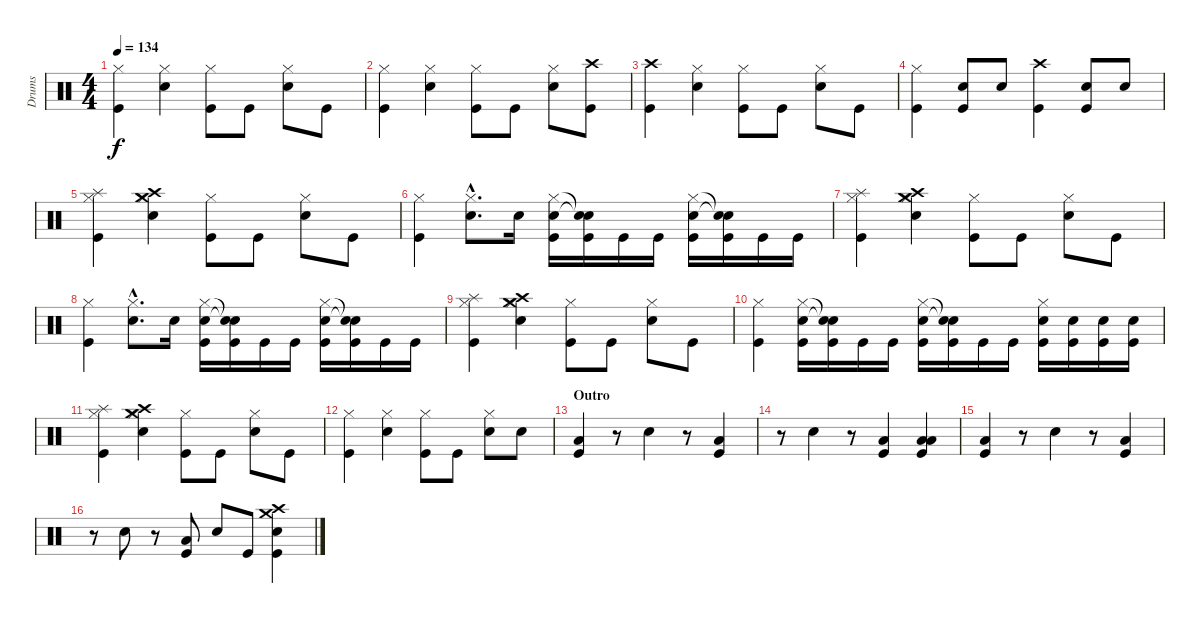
\track ("Drums" "Drums") {instrument percussion}
\staff {score}
\articulation defaults
\ts (4 4)
\tempo 134
\clef neutral
\ks c
("Hi-Hat (closed)" "Kick (hit)").4{dy f} ("Electric Snare (hit)" "Hi-Hat (closed)").4 ("Hi-Hat (closed)" "Kick (hit)").8 "Kick (hit)".8 ("Electric Snare (hit)" "Hi-Hat (closed)").8 "Kick (hit)".8 |
("Hi-Hat (closed)" "Kick (hit)").4 ("Electric Snare (hit)" "Hi-Hat (closed)").4 ("Hi-Hat (closed)" "Kick (hit)").8 "Kick (hit)".8 ("Electric Snare (hit)" "Hi-Hat (closed)").8 ("Crash high (hit)" "Kick (hit)").8 |
("Crash high (hit)" "Kick (hit)").4 ("Electric Snare (hit)" "Hi-Hat (closed)").4 ("Hi-Hat (closed)" "Kick (hit)").8 "Kick (hit)".8 ("Electric Snare (hit)" "Hi-Hat (closed)").8 "Kick (hit)".8 |
("Hi-Hat (closed)" "Kick (hit)").4 ("Electric Snare (hit)" "Kick (hit)").8 "Electric Snare (hit)".8 ("Crash high (hit)" "Kick (hit)").4 ("Electric Snare (hit)" "Kick (hit)").8 "Electric Snare (hit)".8 |
("Splash (hit)" "Hi-Hat (closed)" "Kick (hit)").4 ("Electric Snare (hit)" "Crash medium (hit)" "Crash high (hit)" "Hi-Hat (closed)").4 ("Hi-Hat (closed)" "Kick (hit)").8 "Kick (hit)".8 ("Electric Snare (hit)" "Hi-Hat (closed)").8 "Kick (hit)".8 |
("Hi-Hat (closed)" "Kick (hit)").4 ("Electric Snare (hit)"{hac} "Hi-Hat (closed)"{hac}).8{d} "Electric Snare (hit)".16 ("Electric Snare (hit)" "Hi-Hat (closed)" "Kick (hit)").16 ("Snare (hit)"{t} "Snare (hit)"{t} "Kick (hit)").16 "Kick (hit)".16 "Kick (hit)".16 ("Electric Snare (hit)" "Hi-Hat (closed)" "Kick (hit)").16 ("Snare (hit)"{t} "Snare (hit)"{t} "Kick (hit)").16 "Kick (hit)".16 "Kick (hit)".16 |
("Splash (hit)" "Hi-Hat (closed)" "Kick (hit)").4 ("Electric Snare (hit)" "Crash medium (hit)" "Crash high (hit)" "Hi-Hat (closed)").4 ("Hi-Hat (closed)" "Kick (hit)").8 "Kick (hit)".8 ("Electric Snare (hit)" "Hi-Hat (closed)").8 "Kick (hit)".8 |
("Hi-Hat (closed)" "Kick (hit)").4 ("Electric Snare (hit)"{hac} "Hi-Hat (closed)"{hac}).8{d} "Electric Snare (hit)".16 ("Electric Snare (hit)" "Hi-Hat (closed)" "Kick (hit)").16 ("Snare (hit)"{t} "Snare (hit)"{t} "Kick (hit)").16 "Kick (hit)".16 "Kick (hit)".16 ("Electric Snare (hit)" "Hi-Hat (closed)" "Kick (hit)").16 ("Snare (hit)"{t} "Snare (hit)"{t} "Kick (hit)").16 "Kick (hit)".16 "Kick (hit)".16 |
("Splash (hit)" "Hi-Hat (closed)" "Kick (hit)").4 ("Electric Snare (hit)" "Crash medium (hit)" "Crash high (hit)" "Hi-Hat (closed)").4 ("Hi-Hat (closed)" "Kick (hit)").8 "Kick (hit)".8 ("Electric Snare (hit)" "Hi-Hat (closed)").8 "Kick (hit)".8 |
("Hi-Hat (closed)" "Kick (hit)").4 ("Electric Snare (hit)" "Hi-Hat (closed)" "Kick (hit)").16 ("Snare (hit)"{t} "Snare (hit)"{t} "Kick (hit)").16 "Kick (hit)".16 "Kick (hit)".16 ("Electric Snare (hit)" "Hi-Hat (closed)" "Kick (hit)").16 ("Snare (hit)"{t} "Snare (hit)"{t} "Kick (hit)").16 "Kick (hit)".16 "Kick (hit)".16 ("Electric Snare (hit)" "Hi-Hat (closed)" "Kick (hit)").16 ("Electric Snare (hit)" "Kick (hit)").16 ("Electric Snare (hit)" "Kick (hit)").16 ("Electric Snare (hit)" "Kick (hit)").16 |
("Splash (hit)" "Hi-Hat (closed)" "Kick (hit)").4 ("Electric Snare (hit)" "Crash medium (hit)" "Crash high (hit)" "Hi-Hat (closed)").4 ("Hi-Hat (closed)" "Kick (hit)").8 "Kick (hit)".8 ("Electric Snare (hit)" "Hi-Hat (closed)").8 "Kick (hit)".8 |
("Hi-Hat (closed)" "Kick (hit)").4 ("Electric Snare (hit)" "Hi-Hat (closed)").4 ("Hi-Hat (closed)" "Kick (hit)").8 "Kick (hit)".8 ("Electric Snare (hit)" "Hi-Hat (closed)").8 "Electric Snare (hit)".8 |
\section ("" "Outro")
("Low Tom (hit)" "Kick (hit)").4 r.8 "Electric Snare (hit)".4 r.8 ("Low Tom (hit)" "Kick (hit)").4 |
r.8 "Electric Snare (hit)".4 r.8 ("Low Tom (hit)" "Kick (hit)").4 ("Low Tom (hit)" "Low Floor Tom (hit)" "Kick (hit)").4 |
("Low Floor Tom (hit)" "Kick (hit)").4 r.8 "Electric Snare (hit)".4 r.8 ("Low Tom (hit)" "Kick (hit)").4 |
r.8 "Electric Snare (hit)".8 r.8 ("Low Tom (hit)" "Kick (hit)").8 "Electric Snare (hit)".8 "Kick (hit)".8 ("Electric Snare (hit)" "Crash medium (hit)" "Crash high (hit)" "Kick (hit)").4
